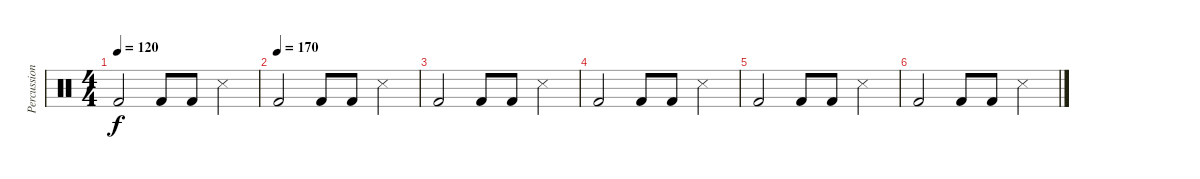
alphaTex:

\track ("Percussion" "Percussion") {instrument percussion}
\staff {score}
\articulation defaults
\ts (4 4)
\tempo 120
\clef neutral
\ks c "Kick (hit) 2".2{dy f} "Kick (hit) 2".8 "Kick (hit) 2".8 "Snare (side stick) 3".4
|
\tempo (170)
"Kick (hit) 2".2 "Kick (hit) 2".8 "Kick (hit) 2".8 "Snare (side stick) 3".4 |
"Kick (hit) 2".2 "Kick (hit) 2".8 "Kick (hit) 2".8 "Snare (side stick) 3".4 |
"Kick (hit) 2".2 "Kick (hit) 2".8 "Kick (hit) 2".8 "Snare (side stick) 3".4 |
"Kick (hit) 2".2 "Kick (hit) 2".8 "Kick (hit) 2".8 "Snare (side stick) 3".4 |
"Kick (hit) 2".2 "Kick (hit) 2".8 "Kick (hit) 2".8 "Snare (side stick) 3".4
